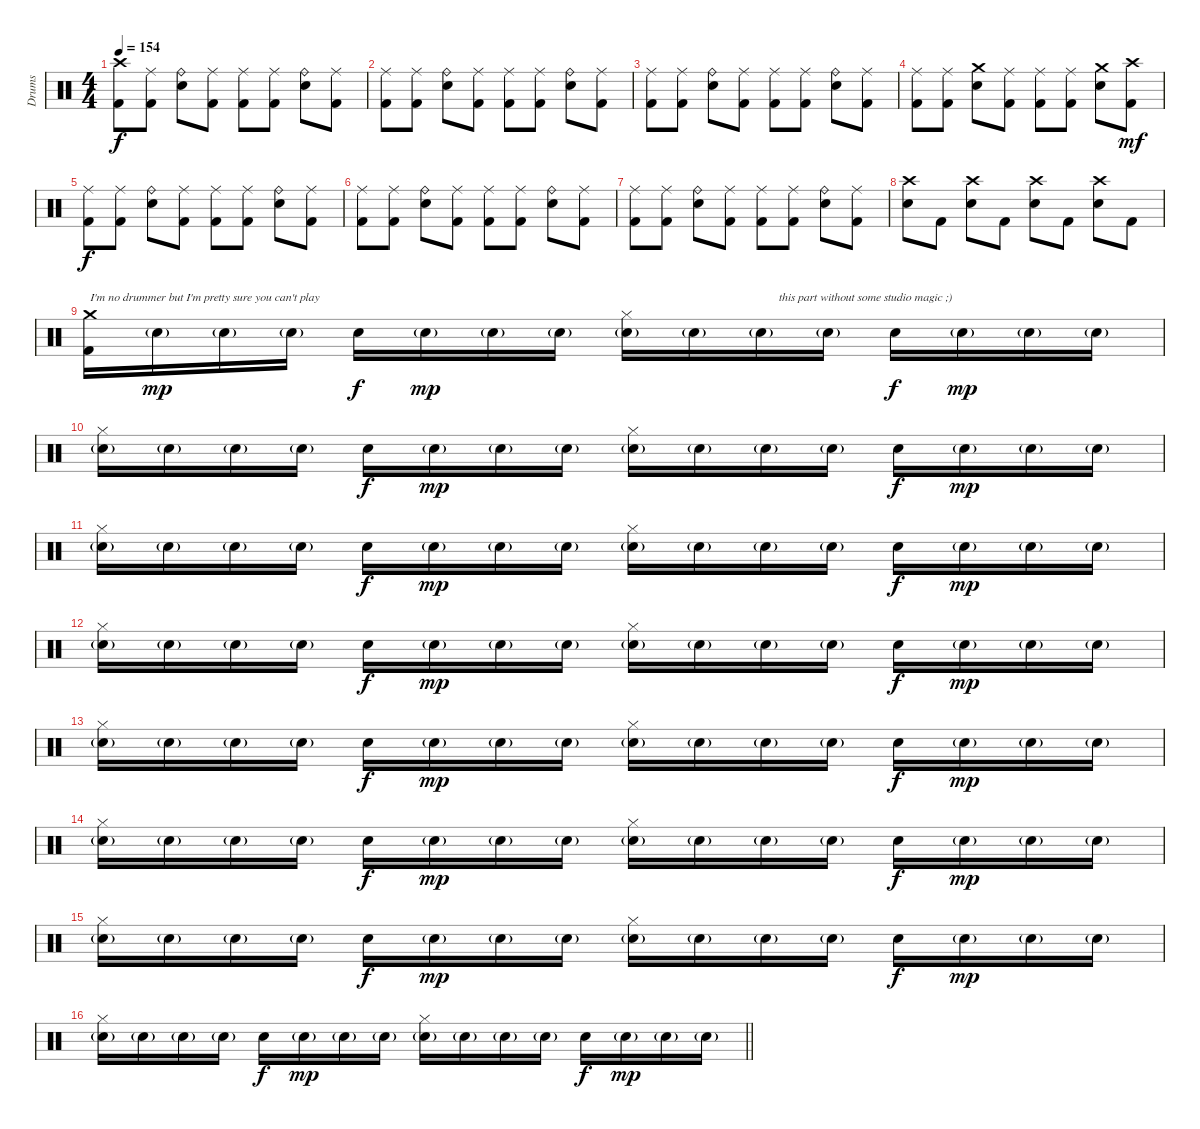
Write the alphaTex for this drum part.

\track ("Drums" "Drums") {instrument percussion}
\staff {score}
\articulation defaults
\ts (4 4)
\tempo 154
\clef neutral
\ks c
("Crash high (hit)" "Kick (hit) 2").8{dy f} ("Ride (middle)" "Kick (hit) 2").8 ("Ride (bell)" "Snare (hit) 2").8 ("Ride (middle)" "Kick (hit) 2").8 ("Ride (middle)" "Kick (hit) 2").8 ("Ride (middle)" "Kick (hit) 2").8 ("Ride (bell)" "Snare (hit) 2").8 ("Ride (middle)" "Kick (hit) 2").8 |
("Ride (middle)" "Kick (hit) 2").8 ("Ride (middle)" "Kick (hit) 2").8 ("Ride (bell)" "Snare (hit) 2").8 ("Ride (middle)" "Kick (hit) 2").8 ("Ride (middle)" "Kick (hit) 2").8 ("Ride (middle)" "Kick (hit) 2").8 ("Ride (bell)" "Snare (hit) 2").8 ("Ride (middle)" "Kick (hit) 2").8 |
("Ride (middle)" "Kick (hit) 2").8 ("Ride (middle)" "Kick (hit) 2").8 ("Ride (bell)" "Snare (hit) 2").8 ("Ride (middle)" "Kick (hit) 2").8 ("Ride (middle)" "Kick (hit) 2").8 ("Ride (middle)" "Kick (hit) 2").8 ("Ride (bell)" "Snare (hit) 2").8 ("Ride (middle)" "Kick (hit) 2").8 |
("Ride (middle)" "Kick (hit) 2").8 ("Ride (middle)" "Kick (hit) 2").8 ("Crash medium (hit)" "Snare (hit) 2").8 ("Ride (middle)" "Kick (hit) 2").8 ("Ride (middle)" "Kick (hit) 2").8 ("Ride (middle)" "Kick (hit) 2").8 ("Crash medium (hit)" "Snare (hit) 2").8 ("Crash high (hit)" "Kick (hit) 2").8{dy mf} |
("Ride (middle)" "Kick (hit) 2").8{dy f} ("Ride (middle)" "Kick (hit) 2").8 ("Ride (bell)" "Snare (hit) 2").8 ("Ride (middle)" "Kick (hit) 2").8 ("Ride (middle)" "Kick (hit) 2").8 ("Ride (middle)" "Kick (hit) 2").8 ("Ride (bell)" "Snare (hit) 2").8 ("Ride (middle)" "Kick (hit) 2").8 |
("Ride (middle)" "Kick (hit) 2").8 ("Ride (middle)" "Kick (hit) 2").8 ("Ride (bell)" "Snare (hit) 2").8 ("Ride (middle)" "Kick (hit) 2").8 ("Ride (middle)" "Kick (hit) 2").8 ("Ride (middle)" "Kick (hit) 2").8 ("Ride (bell)" "Snare (hit) 2").8 ("Ride (middle)" "Kick (hit) 2").8 |
("Ride (middle)" "Kick (hit) 2").8 ("Ride (middle)" "Kick (hit) 2").8 ("Ride (bell)" "Snare (hit) 2").8 ("Ride (middle)" "Kick (hit) 2").8 ("Ride (middle)" "Kick (hit) 2").8 ("Ride (middle)" "Kick (hit) 2").8 ("Ride (bell)" "Snare (hit) 2").8 ("Ride (middle)" "Kick (hit) 2").8 |
("Crash high (hit)" "Snare (hit) 2").8 "Kick (hit) 2".8 ("Crash high (hit)" "Snare (hit) 2").8 "Kick (hit) 2".8 ("Crash high (hit)" "Snare (hit) 2").8 "Kick (hit) 2".8 ("Crash high (hit)" "Snare (hit) 2").8 "Kick (hit) 2".8 |
("Crash medium (hit)" "Kick (hit) 2").16{txt "I'm no drummer but I'm pretty sure you can't play"} "Electric Snare (hit)"{g}.16{dy mp} "Electric Snare (hit)"{g}.16 "Electric Snare (hit)"{g}.16 "Snare (hit) 2".16{dy f} "Electric Snare (hit)"{g}.16{dy mp} "Electric Snare (hit)"{g}.16 "Electric Snare (hit)"{g}.16 ("Hi-Hat (closed)" "Electric Snare (hit)"{g}).16 "Electric Snare (hit)"{g}.16 "Electric Snare (hit)"{g}.16{txt "      this part without some studio magic ;)"} "Electric Snare (hit)"{g}.16 "Snare (hit) 2".16{dy f} "Electric Snare (hit)"{g}.16{dy mp} "Electric Snare (hit)"{g}.16 "Electric Snare (hit)"{g}.16 |
("Hi-Hat (closed)" "Electric Snare (hit)"{g}).16 "Electric Snare (hit)"{g}.16 "Electric Snare (hit)"{g}.16 "Electric Snare (hit)"{g}.16 "Snare (hit) 2".16{dy f} "Electric Snare (hit)"{g}.16{dy mp} "Electric Snare (hit)"{g}.16 "Electric Snare (hit)"{g}.16 ("Hi-Hat (closed)" "Electric Snare (hit)"{g}).16 "Electric Snare (hit)"{g}.16 "Electric Snare (hit)"{g}.16 "Electric Snare (hit)"{g}.16 "Snare (hit) 2".16{dy f} "Electric Snare (hit)"{g}.16{dy mp} "Electric Snare (hit)"{g}.16 "Electric Snare (hit)"{g}.16 |
("Hi-Hat (closed)" "Electric Snare (hit)"{g}).16 "Electric Snare (hit)"{g}.16 "Electric Snare (hit)"{g}.16 "Electric Snare (hit)"{g}.16 "Snare (hit) 2".16{dy f} "Electric Snare (hit)"{g}.16{dy mp} "Electric Snare (hit)"{g}.16 "Electric Snare (hit)"{g}.16 ("Hi-Hat (closed)" "Electric Snare (hit)"{g}).16 "Electric Snare (hit)"{g}.16 "Electric Snare (hit)"{g}.16 "Electric Snare (hit)"{g}.16 "Snare (hit) 2".16{dy f} "Electric Snare (hit)"{g}.16{dy mp} "Electric Snare (hit)"{g}.16 "Electric Snare (hit)"{g}.16 |
("Hi-Hat (closed)" "Electric Snare (hit)"{g}).16 "Electric Snare (hit)"{g}.16 "Electric Snare (hit)"{g}.16 "Electric Snare (hit)"{g}.16 "Snare (hit) 2".16{dy f} "Electric Snare (hit)"{g}.16{dy mp} "Electric Snare (hit)"{g}.16 "Electric Snare (hit)"{g}.16 ("Hi-Hat (closed)" "Electric Snare (hit)"{g}).16 "Electric Snare (hit)"{g}.16 "Electric Snare (hit)"{g}.16 "Electric Snare (hit)"{g}.16 "Snare (hit) 2".16{dy f} "Electric Snare (hit)"{g}.16{dy mp} "Electric Snare (hit)"{g}.16 "Electric Snare (hit)"{g}.16 |
("Hi-Hat (closed)" "Electric Snare (hit)"{g}).16 "Electric Snare (hit)"{g}.16 "Electric Snare (hit)"{g}.16 "Electric Snare (hit)"{g}.16 "Snare (hit) 2".16{dy f} "Electric Snare (hit)"{g}.16{dy mp} "Electric Snare (hit)"{g}.16 "Electric Snare (hit)"{g}.16 ("Hi-Hat (closed)" "Electric Snare (hit)"{g}).16 "Electric Snare (hit)"{g}.16 "Electric Snare (hit)"{g}.16 "Electric Snare (hit)"{g}.16 "Snare (hit) 2".16{dy f} "Electric Snare (hit)"{g}.16{dy mp} "Electric Snare (hit)"{g}.16 "Electric Snare (hit)"{g}.16 |
("Hi-Hat (closed)" "Electric Snare (hit)"{g}).16 "Electric Snare (hit)"{g}.16 "Electric Snare (hit)"{g}.16 "Electric Snare (hit)"{g}.16 "Snare (hit) 2".16{dy f} "Electric Snare (hit)"{g}.16{dy mp} "Electric Snare (hit)"{g}.16 "Electric Snare (hit)"{g}.16 ("Hi-Hat (closed)" "Electric Snare (hit)"{g}).16 "Electric Snare (hit)"{g}.16 "Electric Snare (hit)"{g}.16 "Electric Snare (hit)"{g}.16 "Snare (hit) 2".16{dy f} "Electric Snare (hit)"{g}.16{dy mp} "Electric Snare (hit)"{g}.16 "Electric Snare (hit)"{g}.16 |
("Hi-Hat (closed)" "Electric Snare (hit)"{g}).16 "Electric Snare (hit)"{g}.16 "Electric Snare (hit)"{g}.16 "Electric Snare (hit)"{g}.16 "Snare (hit) 2".16{dy f} "Electric Snare (hit)"{g}.16{dy mp} "Electric Snare (hit)"{g}.16 "Electric Snare (hit)"{g}.16 ("Hi-Hat (closed)" "Electric Snare (hit)"{g}).16 "Electric Snare (hit)"{g}.16 "Electric Snare (hit)"{g}.16 "Electric Snare (hit)"{g}.16 "Snare (hit) 2".16{dy f} "Electric Snare (hit)"{g}.16{dy mp} "Electric Snare (hit)"{g}.16 "Electric Snare (hit)"{g}.16 |
\barLineRight lightlight
("Hi-Hat (closed)" "Electric Snare (hit)"{g}).16 "Electric Snare (hit)"{g}.16 "Electric Snare (hit)"{g}.16 "Electric Snare (hit)"{g}.16 "Snare (hit) 2".16{dy f} "Electric Snare (hit)"{g}.16{dy mp} "Electric Snare (hit)"{g}.16 "Electric Snare (hit)"{g}.16 ("Hi-Hat (closed)" "Electric Snare (hit)"{g}).16 "Electric Snare (hit)"{g}.16 "Electric Snare (hit)"{g}.16 "Electric Snare (hit)"{g}.16 "Snare (hit) 2".16{dy f} "Electric Snare (hit)"{g}.16{dy mp} "Electric Snare (hit)"{g}.16 "Electric Snare (hit)"{g}.16
